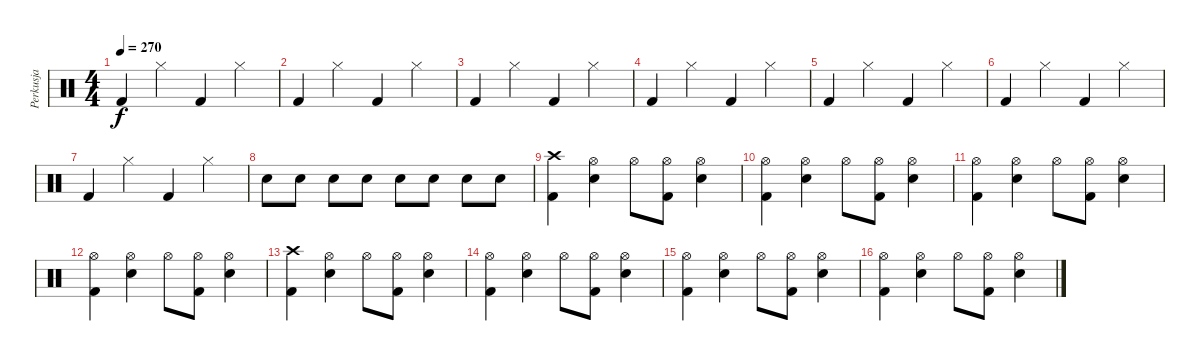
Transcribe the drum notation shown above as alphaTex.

\track ("Perkusja" "Perkusja") {instrument percussion}
\staff {score}
\articulation defaults
\ts (4 4)
\tempo 270
\clef neutral
\ks c "Kick (hit) 2".4{dy f} "Hi-Hat (closed)".4 "Kick (hit) 2".4 "Hi-Hat (closed)".4
|
"Kick (hit) 2".4 "Hi-Hat (closed)".4 "Kick (hit) 2".4 "Hi-Hat (closed)".4 |
"Kick (hit) 2".4 "Hi-Hat (closed)".4 "Kick (hit) 2".4 "Hi-Hat (closed)".4 |
"Kick (hit) 2".4 "Hi-Hat (closed)".4 "Kick (hit) 2".4 "Hi-Hat (closed)".4 |
"Kick (hit) 2".4 "Hi-Hat (closed)".4 "Kick (hit) 2".4 "Hi-Hat (closed)".4 |
"Kick (hit) 2".4 "Hi-Hat (closed)".4 "Kick (hit) 2".4 "Hi-Hat (closed)".4 |
"Kick (hit) 2".4 "Hi-Hat (closed)".4 "Kick (hit) 2".4 "Hi-Hat (closed)".4 |
"Electric Snare (hit)".8 "Electric Snare (hit)".8 "Electric Snare (hit)".8 "Electric Snare (hit)".8 "Electric Snare (hit)".8 "Electric Snare (hit)".8 "Electric Snare (hit)".8 "Electric Snare (hit)".8 |
("Crash high (hit)" "Kick (hit) 2").4{volume 13} ("Hi-Hat (open)" "Electric Snare (hit)").4 "Hi-Hat (open)".8 ("Hi-Hat (open)" "Kick (hit) 2").8 ("Hi-Hat (open)" "Electric Snare (hit)").4 |
("Hi-Hat (open)" "Kick (hit) 2").4 ("Hi-Hat (open)" "Electric Snare (hit)").4 "Hi-Hat (open)".8 ("Hi-Hat (open)" "Kick (hit) 2").8 ("Hi-Hat (open)" "Electric Snare (hit)").4 |
("Hi-Hat (open)" "Kick (hit) 2").4 ("Hi-Hat (open)" "Electric Snare (hit)").4 "Hi-Hat (open)".8 ("Hi-Hat (open)" "Kick (hit) 2").8 ("Hi-Hat (open)" "Electric Snare (hit)").4 |
("Hi-Hat (open)" "Kick (hit) 2").4 ("Hi-Hat (open)" "Electric Snare (hit)").4 "Hi-Hat (open)".8 ("Hi-Hat (open)" "Kick (hit) 2").8 ("Hi-Hat (open)" "Electric Snare (hit)").4 |
("Crash high (hit)" "Kick (hit) 2").4 ("Hi-Hat (open)" "Electric Snare (hit)").4 "Hi-Hat (open)".8 ("Hi-Hat (open)" "Kick (hit) 2").8 ("Hi-Hat (open)" "Electric Snare (hit)").4 |
("Hi-Hat (open)" "Kick (hit) 2").4 ("Hi-Hat (open)" "Electric Snare (hit)").4 "Hi-Hat (open)".8 ("Hi-Hat (open)" "Kick (hit) 2").8 ("Hi-Hat (open)" "Electric Snare (hit)").4 |
("Hi-Hat (open)" "Kick (hit) 2").4 ("Hi-Hat (open)" "Electric Snare (hit)").4 "Hi-Hat (open)".8 ("Hi-Hat (open)" "Kick (hit) 2").8 ("Hi-Hat (open)" "Electric Snare (hit)").4 |
("Hi-Hat (open)" "Kick (hit) 2").4 ("Hi-Hat (open)" "Electric Snare (hit)").4 "Hi-Hat (open)".8 ("Hi-Hat (open)" "Kick (hit) 2").8 ("Hi-Hat (open)" "Electric Snare (hit)").4
